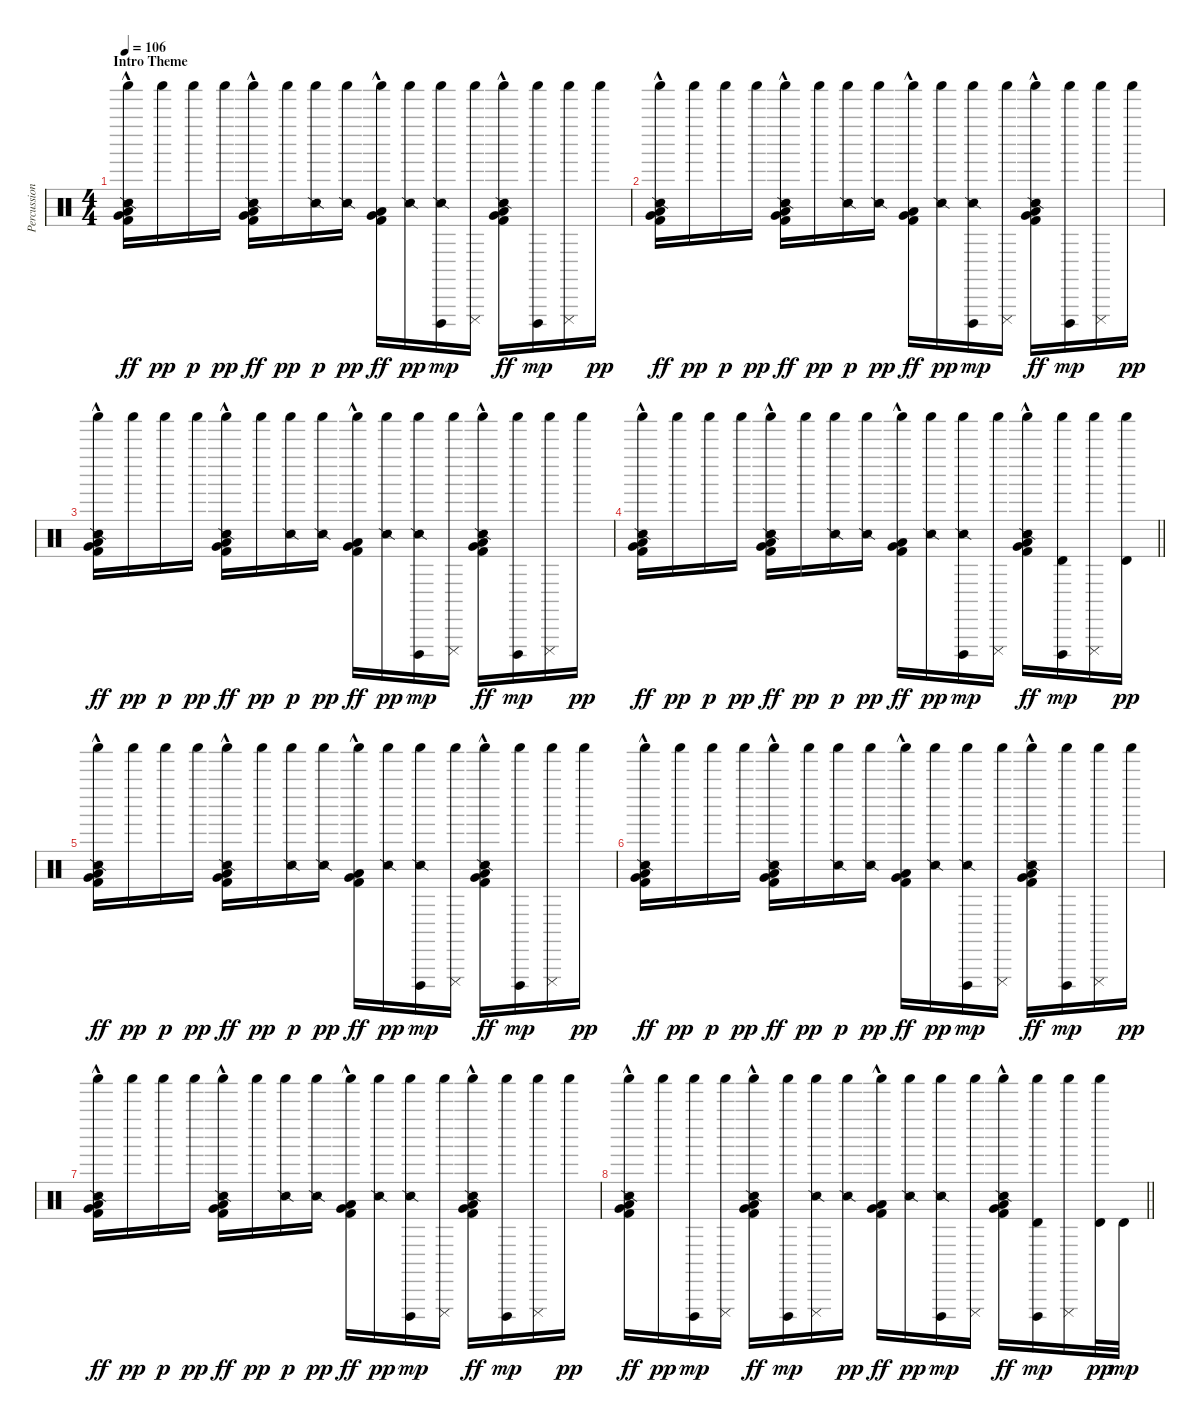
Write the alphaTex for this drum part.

\track ("Percussion" "Percussion") {instrument percussion}
\staff {score}
\articulation defaults
\ts (4 4)
\section ("" "Intro Theme")
\tempo 106
\clef neutral
\ks c
("Low Floor Tom (hit)" "Very Low Tom (hit)" "Snare (side stick) 2" "Shaker (hit)" "Kick (hit) 2"{hac}).16{dy ff} "Shaker (hit)".16{dy pp} "Shaker (hit)".16{dy p} "Shaker (hit)".16{dy pp} ("Low Floor Tom (hit)" "Very Low Tom (hit)" "Snare (side stick) 2" "Shaker (hit)" "Kick (hit) 2"{hac}).16{dy ff} "Shaker (hit)".16{dy pp} ("Snare (side stick) 2" "Shaker (hit)").16{dy p} ("Snare (side stick) 2" "Shaker (hit)").16{dy pp} ("Low Floor Tom (hit)" "Very Low Tom (hit)" "Shaker (hit)" "Kick (hit) 2"{hac}).16{dy ff} ("Snare (side stick) 2" "Shaker (hit)").16{dy pp} ("Snare (side stick) 2" "Shaker (hit)" "Cuica (open)").16{dy mp} ("Shaker (hit)" "Cuica (mute)").16 ("Low Floor Tom (hit)" "Very Low Tom (hit)" "Snare (side stick) 2" "Shaker (hit)" "Kick (hit) 2"{hac}).16{dy ff} ("Shaker (hit)" "Cuica (open)").16{dy mp} ("Shaker (hit)" "Cuica (mute)").16 "Shaker (hit)".16{dy pp} |
("Low Floor Tom (hit)" "Very Low Tom (hit)" "Snare (side stick) 2" "Shaker (hit)" "Kick (hit) 2"{hac}).16{dy ff} "Shaker (hit)".16{dy pp} "Shaker (hit)".16{dy p} "Shaker (hit)".16{dy pp} ("Low Floor Tom (hit)" "Very Low Tom (hit)" "Snare (side stick) 2" "Shaker (hit)" "Kick (hit) 2"{hac}).16{dy ff} "Shaker (hit)".16{dy pp} ("Snare (side stick) 2" "Shaker (hit)").16{dy p} ("Snare (side stick) 2" "Shaker (hit)").16{dy pp} ("Low Floor Tom (hit)" "Very Low Tom (hit)" "Shaker (hit)" "Kick (hit) 2"{hac}).16{dy ff} ("Snare (side stick) 2" "Shaker (hit)").16{dy pp} ("Snare (side stick) 2" "Shaker (hit)" "Cuica (open)").16{dy mp} ("Shaker (hit)" "Cuica (mute)").16 ("Low Floor Tom (hit)" "Very Low Tom (hit)" "Snare (side stick) 2" "Shaker (hit)" "Kick (hit) 2"{hac}).16{dy ff} ("Shaker (hit)" "Cuica (open)").16{dy mp} ("Shaker (hit)" "Cuica (mute)").16 "Shaker (hit)".16{dy pp} |
("Low Floor Tom (hit)" "Very Low Tom (hit)" "Snare (side stick) 2" "Shaker (hit)" "Kick (hit) 2"{hac}).16{dy ff} "Shaker (hit)".16{dy pp} "Shaker (hit)".16{dy p} "Shaker (hit)".16{dy pp} ("Low Floor Tom (hit)" "Very Low Tom (hit)" "Snare (side stick) 2" "Shaker (hit)" "Kick (hit) 2"{hac}).16{dy ff} "Shaker (hit)".16{dy pp} ("Snare (side stick) 2" "Shaker (hit)").16{dy p} ("Snare (side stick) 2" "Shaker (hit)").16{dy pp} ("Low Floor Tom (hit)" "Very Low Tom (hit)" "Shaker (hit)" "Kick (hit) 2"{hac}).16{dy ff} ("Snare (side stick) 2" "Shaker (hit)").16{dy pp} ("Snare (side stick) 2" "Shaker (hit)" "Cuica (open)").16{dy mp} ("Shaker (hit)" "Cuica (mute)").16 ("Low Floor Tom (hit)" "Very Low Tom (hit)" "Snare (side stick) 2" "Shaker (hit)" "Kick (hit) 2"{hac}).16{dy ff} ("Shaker (hit)" "Cuica (open)").16{dy mp} ("Shaker (hit)" "Cuica (mute)").16 "Shaker (hit)".16{dy pp} |
\barLineRight lightlight
("Low Floor Tom (hit)" "Very Low Tom (hit)" "Snare (side stick) 2" "Shaker (hit)" "Kick (hit) 2"{hac}).16{dy ff} "Shaker (hit)".16{dy pp} "Shaker (hit)".16{dy p} "Shaker (hit)".16{dy pp} ("Low Floor Tom (hit)" "Very Low Tom (hit)" "Snare (side stick) 2" "Shaker (hit)" "Kick (hit) 2"{hac}).16{dy ff} "Shaker (hit)".16{dy pp} ("Snare (side stick) 2" "Shaker (hit)").16{dy p} ("Snare (side stick) 2" "Shaker (hit)").16{dy pp} ("Low Floor Tom (hit)" "Very Low Tom (hit)" "Shaker (hit)" "Kick (hit) 2"{hac}).16{dy ff} ("Snare (side stick) 2" "Shaker (hit)").16{dy pp} ("Snare (side stick) 2" "Shaker (hit)" "Cuica (open)").16{dy mp} ("Shaker (hit)" "Cuica (mute)").16 ("Low Floor Tom (hit)" "Very Low Tom (hit)" "Snare (side stick) 2" "Shaker (hit)" "Kick (hit) 2"{hac}).16{dy ff} ("Timbale high (hit)" "Shaker (hit)" "Cuica (open)").16{dy mp} ("Shaker (hit)" "Cuica (mute)").16 ("Timbale high (hit)" "Shaker (hit)").16{dy pp} |
("Low Floor Tom (hit)" "Very Low Tom (hit)" "Snare (side stick) 2" "Shaker (hit)" "Kick (hit) 2"{hac}).16{dy ff} "Shaker (hit)".16{dy pp} "Shaker (hit)".16{dy p} "Shaker (hit)".16{dy pp} ("Low Floor Tom (hit)" "Very Low Tom (hit)" "Snare (side stick) 2" "Shaker (hit)" "Kick (hit) 2"{hac}).16{dy ff} "Shaker (hit)".16{dy pp} ("Snare (side stick) 2" "Shaker (hit)").16{dy p} ("Snare (side stick) 2" "Shaker (hit)").16{dy pp} ("Low Floor Tom (hit)" "Very Low Tom (hit)" "Shaker (hit)" "Kick (hit) 2"{hac}).16{dy ff} ("Snare (side stick) 2" "Shaker (hit)").16{dy pp} ("Snare (side stick) 2" "Shaker (hit)" "Cuica (open)").16{dy mp} ("Shaker (hit)" "Cuica (mute)").16 ("Low Floor Tom (hit)" "Very Low Tom (hit)" "Snare (side stick) 2" "Shaker (hit)" "Kick (hit) 2"{hac}).16{dy ff} ("Shaker (hit)" "Cuica (open)").16{dy mp} ("Shaker (hit)" "Cuica (mute)").16 "Shaker (hit)".16{dy pp} |
("Low Floor Tom (hit)" "Very Low Tom (hit)" "Snare (side stick) 2" "Shaker (hit)" "Kick (hit) 2"{hac}).16{dy ff} "Shaker (hit)".16{dy pp} "Shaker (hit)".16{dy p} "Shaker (hit)".16{dy pp} ("Low Floor Tom (hit)" "Very Low Tom (hit)" "Snare (side stick) 2" "Shaker (hit)" "Kick (hit) 2"{hac}).16{dy ff} "Shaker (hit)".16{dy pp} ("Snare (side stick) 2" "Shaker (hit)").16{dy p} ("Snare (side stick) 2" "Shaker (hit)").16{dy pp} ("Low Floor Tom (hit)" "Very Low Tom (hit)" "Shaker (hit)" "Kick (hit) 2"{hac}).16{dy ff} ("Snare (side stick) 2" "Shaker (hit)").16{dy pp} ("Snare (side stick) 2" "Shaker (hit)" "Cuica (open)").16{dy mp} ("Shaker (hit)" "Cuica (mute)").16 ("Low Floor Tom (hit)" "Very Low Tom (hit)" "Snare (side stick) 2" "Shaker (hit)" "Kick (hit) 2"{hac}).16{dy ff} ("Shaker (hit)" "Cuica (open)").16{dy mp} ("Shaker (hit)" "Cuica (mute)").16 "Shaker (hit)".16{dy pp} |
("Low Floor Tom (hit)" "Very Low Tom (hit)" "Snare (side stick) 2" "Shaker (hit)" "Kick (hit) 2"{hac}).16{dy ff} "Shaker (hit)".16{dy pp} "Shaker (hit)".16{dy p} "Shaker (hit)".16{dy pp} ("Low Floor Tom (hit)" "Very Low Tom (hit)" "Snare (side stick) 2" "Shaker (hit)" "Kick (hit) 2"{hac}).16{dy ff} "Shaker (hit)".16{dy pp} ("Snare (side stick) 2" "Shaker (hit)").16{dy p} ("Snare (side stick) 2" "Shaker (hit)").16{dy pp} ("Low Floor Tom (hit)" "Very Low Tom (hit)" "Shaker (hit)" "Kick (hit) 2"{hac}).16{dy ff} ("Snare (side stick) 2" "Shaker (hit)").16{dy pp} ("Snare (side stick) 2" "Shaker (hit)" "Cuica (open)").16{dy mp} ("Shaker (hit)" "Cuica (mute)").16 ("Low Floor Tom (hit)" "Very Low Tom (hit)" "Snare (side stick) 2" "Shaker (hit)" "Kick (hit) 2"{hac}).16{dy ff} ("Shaker (hit)" "Cuica (open)").16{dy mp} ("Shaker (hit)" "Cuica (mute)").16 "Shaker (hit)".16{dy pp} |
\barLineRight lightlight
("Low Floor Tom (hit)" "Very Low Tom (hit)" "Snare (side stick) 2" "Shaker (hit)" "Kick (hit) 2"{hac}).16{dy ff} "Shaker (hit)".16{dy pp} ("Shaker (hit)" "Cuica (open)").16{dy mp} ("Shaker (hit)" "Cuica (mute)").16 ("Low Floor Tom (hit)" "Very Low Tom (hit)" "Snare (side stick) 2" "Shaker (hit)" "Kick (hit) 2"{hac}).16{dy ff} ("Shaker (hit)" "Cuica (open)").16{dy mp} ("Snare (side stick) 2" "Shaker (hit)" "Cuica (mute)").16 ("Snare (side stick) 2" "Shaker (hit)").16{dy pp} ("Low Floor Tom (hit)" "Very Low Tom (hit)" "Shaker (hit)" "Kick (hit) 2"{hac}).16{dy ff} ("Snare (side stick) 2" "Shaker (hit)").16{dy pp} ("Snare (side stick) 2" "Shaker (hit)" "Cuica (open)").16{dy mp} ("Shaker (hit)" "Cuica (mute)").16 ("Low Floor Tom (hit)" "Very Low Tom (hit)" "Snare (side stick) 2" "Shaker (hit)" "Kick (hit) 2"{hac}).16{dy ff} ("Timbale high (hit)" "Shaker (hit)" "Cuica (open)").16{dy mp} ("Shaker (hit)" "Cuica (mute)").16 ("Timbale high (hit)" "Shaker (hit)").32{dy pp} "Timbale high (hit)".32{dy mp}
